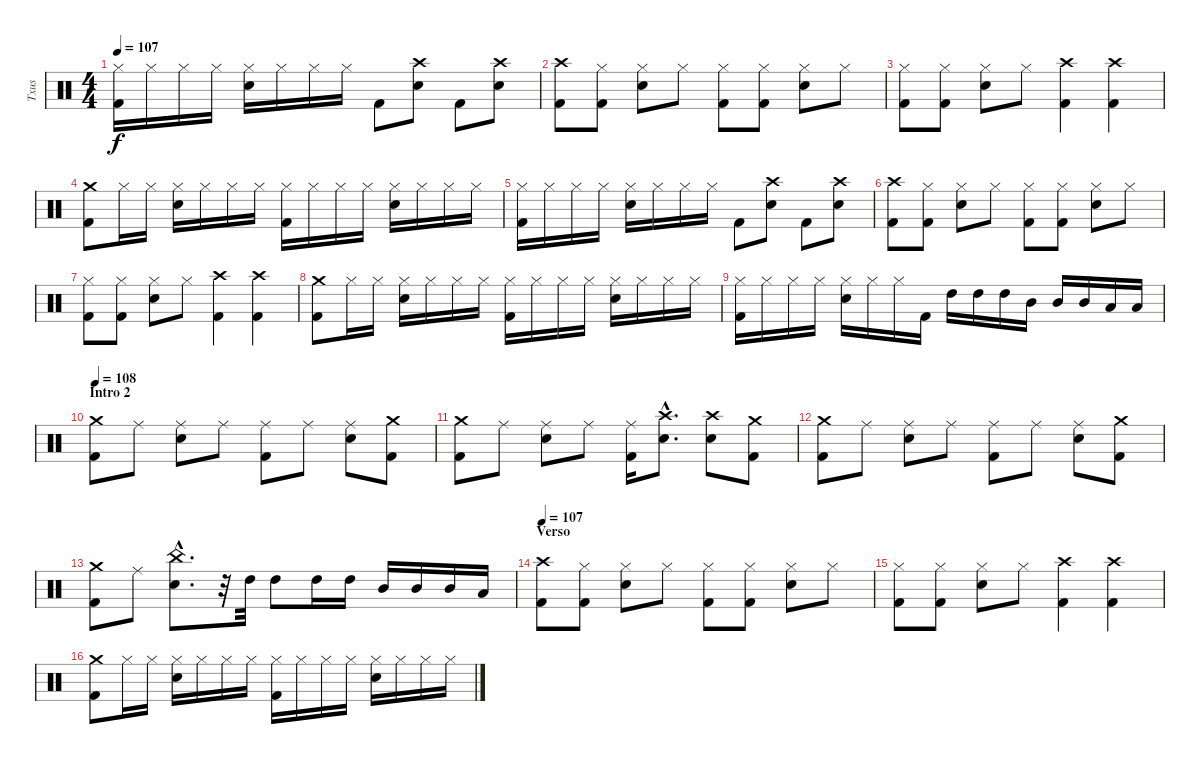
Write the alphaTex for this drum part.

\track ("Txus" "Txus") {instrument percussion}
\staff {score}
\articulation defaults
\ts (4 4)
\tempo 107
\clef neutral
\ks c
("Kick (hit) 2" "Hi-Hat (closed)").16{dy f} "Hi-Hat (closed)".16 "Hi-Hat (closed)".16 "Hi-Hat (closed)".16 ("Electric Snare (hit)" "Hi-Hat (closed)").16 "Hi-Hat (closed)".16 "Hi-Hat (closed)".16 "Hi-Hat (closed)".16 "Kick (hit) 2".8 ("Electric Snare (hit)" "Crash high (hit)").8 "Kick (hit) 2".8 ("Electric Snare (hit)" "Crash high (hit)").8 |
("Kick (hit) 2" "Crash high (hit)").8 ("Kick (hit) 2" "Hi-Hat (closed)").8 ("Electric Snare (hit)" "Hi-Hat (closed)").8 "Hi-Hat (closed)".8 ("Kick (hit) 2" "Hi-Hat (closed)").8 ("Kick (hit) 2" "Hi-Hat (closed)").8 ("Electric Snare (hit)" "Hi-Hat (closed)").8 "Hi-Hat (closed)".8 |
("Kick (hit) 2" "Hi-Hat (closed)").8 ("Kick (hit) 2" "Hi-Hat (closed)").8 ("Electric Snare (hit)" "Hi-Hat (closed)").8 "Hi-Hat (closed)".8 ("Kick (hit) 2" "Crash high (hit)").4 ("Kick (hit) 2" "Crash high (hit)").4 |
("Kick (hit) 2" "Crash medium (hit)").8 "Hi-Hat (closed)".16 "Hi-Hat (closed)".16 ("Electric Snare (hit)" "Hi-Hat (closed)").16 "Hi-Hat (closed)".16 "Hi-Hat (closed)".16 "Hi-Hat (closed)".16 ("Kick (hit) 2" "Hi-Hat (closed)").16 "Hi-Hat (closed)".16 "Hi-Hat (closed)".16 "Hi-Hat (closed)".16 ("Electric Snare (hit)" "Hi-Hat (closed)").16 "Hi-Hat (closed)".16 "Hi-Hat (closed)".16 "Hi-Hat (closed)".16 |
("Kick (hit) 2" "Hi-Hat (closed)").16 "Hi-Hat (closed)".16 "Hi-Hat (closed)".16 "Hi-Hat (closed)".16 ("Electric Snare (hit)" "Hi-Hat (closed)").16 "Hi-Hat (closed)".16 "Hi-Hat (closed)".16 "Hi-Hat (closed)".16 "Kick (hit) 2".8 ("Electric Snare (hit)" "Crash high (hit)").8 "Kick (hit) 2".8 ("Electric Snare (hit)" "Crash high (hit)").8 |
("Kick (hit) 2" "Crash high (hit)").8 ("Kick (hit) 2" "Hi-Hat (closed)").8 ("Electric Snare (hit)" "Hi-Hat (closed)").8 "Hi-Hat (closed)".8 ("Kick (hit) 2" "Hi-Hat (closed)").8 ("Kick (hit) 2" "Hi-Hat (closed)").8 ("Electric Snare (hit)" "Hi-Hat (closed)").8 "Hi-Hat (closed)".8 |
("Kick (hit) 2" "Hi-Hat (closed)").8 ("Kick (hit) 2" "Hi-Hat (closed)").8 ("Electric Snare (hit)" "Hi-Hat (closed)").8 "Hi-Hat (closed)".8 ("Kick (hit) 2" "Crash high (hit)").4 ("Kick (hit) 2" "Crash high (hit)").4 |
("Kick (hit) 2" "Crash medium (hit)").8 "Hi-Hat (closed)".16 "Hi-Hat (closed)".16 ("Electric Snare (hit)" "Hi-Hat (closed)").16 "Hi-Hat (closed)".16 "Hi-Hat (closed)".16 "Hi-Hat (closed)".16 ("Kick (hit) 2" "Hi-Hat (closed)").16 "Hi-Hat (closed)".16 "Hi-Hat (closed)".16 "Hi-Hat (closed)".16 ("Electric Snare (hit)" "Hi-Hat (closed)").16 "Hi-Hat (closed)".16 "Hi-Hat (closed)".16 "Hi-Hat (closed)".16 |
("Kick (hit) 2" "Hi-Hat (closed)").16 "Hi-Hat (closed)".16 "Hi-Hat (closed)".16 "Hi-Hat (closed)".16 ("Electric Snare (hit)" "Hi-Hat (closed)").16 "Hi-Hat (closed)".16 "Hi-Hat (closed)".16 "Kick (hit) 2".16 "High Tom (hit)".16 "High Tom (hit)".16 "High Tom (hit)".16 "Mid Tom (hit)".16 "Mid Tom (hit)".16 "Mid Tom (hit)".16 "Low Tom (hit)".16 "Low Tom (hit)".16 |
\section ("" "Intro 2")
\tempo 108
("Kick (hit) 2" "Crash medium (hit)").8 "Ride (middle)".8 ("Electric Snare (hit)" "Ride (middle)").8 "Ride (middle)".8 ("Kick (hit) 2" "Ride (middle)").8 "Ride (middle)".8 ("Electric Snare (hit)" "Ride (middle)").8 ("Kick (hit) 2" "Crash medium (hit)").8 |
("Kick (hit) 2" "Crash medium (hit)").8 "Ride (middle)".8 ("Electric Snare (hit)" "Ride (middle)").8 "Ride (middle)".8 ("Kick (hit) 2" "Ride (middle)").16 ("Electric Snare (hit)"{hac} "Crash high (hit)"{hac}).8{d} ("Electric Snare (hit)" "Crash high (hit)").8 ("Kick (hit) 2" "Crash medium (hit)").8 |
("Kick (hit) 2" "Crash medium (hit)").8 "Ride (middle)".8 ("Electric Snare (hit)" "Ride (middle)").8 "Ride (middle)".8 ("Kick (hit) 2" "Ride (middle)").8 "Ride (middle)".8 ("Electric Snare (hit)" "Ride (middle)").8 ("Kick (hit) 2" "Crash medium (hit)").8 |
("Kick (hit) 2" "Crash medium (hit)").8 "Ride (middle)".8 ("Electric Snare (hit)"{hac} "China (hit)"{hac}).8{d} r.32 "High Tom (hit)".32 "High Tom (hit)".8 "High Tom (hit)".16 "High Tom (hit)".16 "Mid Tom (hit)".16 "Mid Tom (hit)".16 "Mid Tom (hit)".16 "Low Tom (hit)".16 |
\section ("" "Verso")
\tempo 107
("Kick (hit) 2" "Crash high (hit)").8 ("Kick (hit) 2" "Hi-Hat (closed)").8 ("Electric Snare (hit)" "Hi-Hat (closed)").8 "Hi-Hat (closed)".8 ("Kick (hit) 2" "Hi-Hat (closed)").8 ("Kick (hit) 2" "Hi-Hat (closed)").8 ("Electric Snare (hit)" "Hi-Hat (closed)").8 "Hi-Hat (closed)".8 |
("Kick (hit) 2" "Hi-Hat (closed)").8 ("Kick (hit) 2" "Hi-Hat (closed)").8 ("Electric Snare (hit)" "Hi-Hat (closed)").8 "Hi-Hat (closed)".8 ("Kick (hit) 2" "Crash high (hit)").4 ("Kick (hit) 2" "Crash high (hit)").4 |
("Kick (hit) 2" "Crash medium (hit)").8 "Hi-Hat (closed)".16 "Hi-Hat (closed)".16 ("Electric Snare (hit)" "Hi-Hat (closed)").16 "Hi-Hat (closed)".16 "Hi-Hat (closed)".16 "Hi-Hat (closed)".16 ("Kick (hit) 2" "Hi-Hat (closed)").16 "Hi-Hat (closed)".16 "Hi-Hat (closed)".16 "Hi-Hat (closed)".16 ("Electric Snare (hit)" "Hi-Hat (closed)").16 "Hi-Hat (closed)".16 "Hi-Hat (closed)".16 "Hi-Hat (closed)".16
